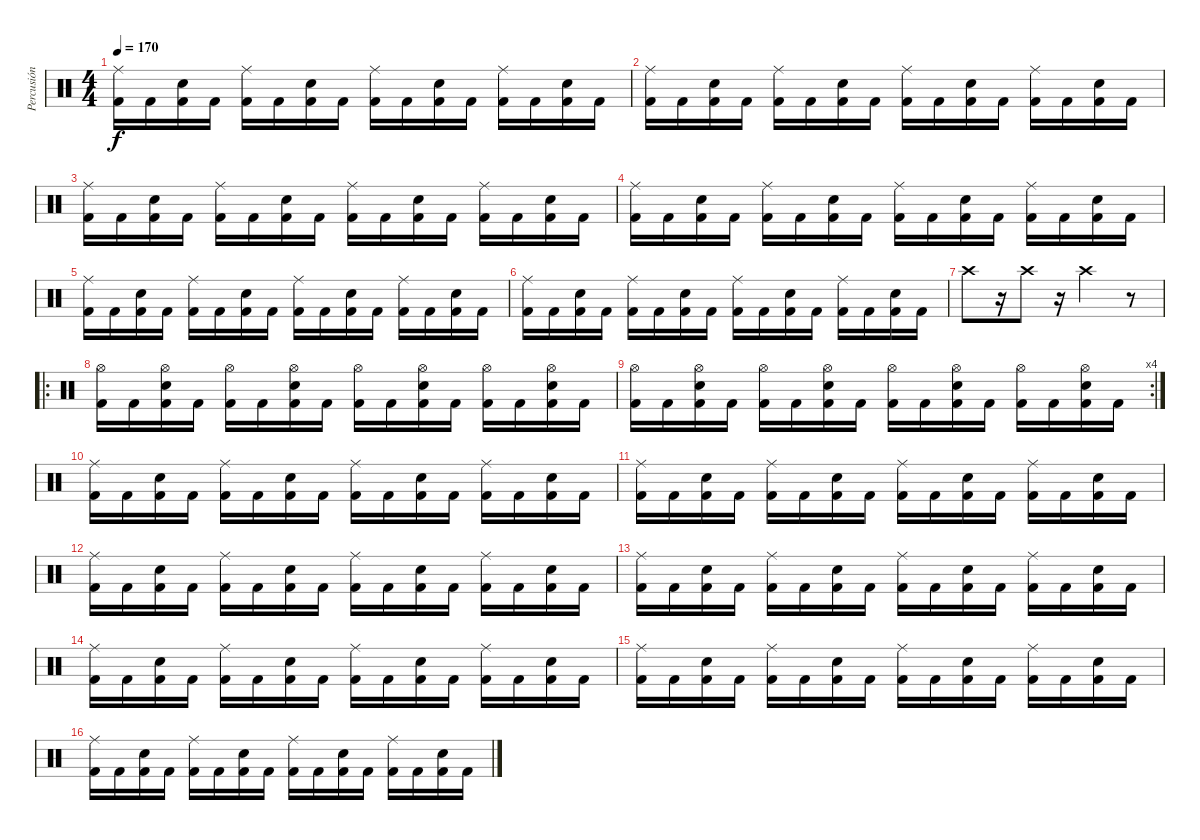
\track ("Percusión" "Percusión") {instrument percussion}
\staff {score}
\articulation defaults
\ts (4 4)
\tempo 170
\clef neutral
\ks c
("Kick (hit) 2" "Ride (middle)").16{dy f} "Kick (hit) 2".16 ("Kick (hit) 2" "Snare (hit) 2").16 "Kick (hit) 2".16 ("Kick (hit) 2" "Ride (middle)").16 "Kick (hit) 2".16 ("Kick (hit) 2" "Snare (hit) 2").16 "Kick (hit) 2".16 ("Kick (hit) 2" "Ride (middle)").16 "Kick (hit) 2".16 ("Kick (hit) 2" "Snare (hit) 2").16 "Kick (hit) 2".16 ("Kick (hit) 2" "Ride (middle)").16 "Kick (hit) 2".16 ("Kick (hit) 2" "Snare (hit) 2").16 "Kick (hit) 2".16 |
("Kick (hit) 2" "Ride (middle)").16 "Kick (hit) 2".16 ("Kick (hit) 2" "Snare (hit) 2").16 "Kick (hit) 2".16 ("Kick (hit) 2" "Ride (middle)").16 "Kick (hit) 2".16 ("Kick (hit) 2" "Snare (hit) 2").16 "Kick (hit) 2".16 ("Kick (hit) 2" "Ride (middle)").16 "Kick (hit) 2".16 ("Kick (hit) 2" "Snare (hit) 2").16 "Kick (hit) 2".16 ("Kick (hit) 2" "Ride (middle)").16 "Kick (hit) 2".16 ("Kick (hit) 2" "Snare (hit) 2").16 "Kick (hit) 2".16 |
("Kick (hit) 2" "Ride (middle)").16 "Kick (hit) 2".16 ("Kick (hit) 2" "Snare (hit) 2").16 "Kick (hit) 2".16 ("Kick (hit) 2" "Ride (middle)").16 "Kick (hit) 2".16 ("Kick (hit) 2" "Snare (hit) 2").16 "Kick (hit) 2".16 ("Kick (hit) 2" "Ride (middle)").16 "Kick (hit) 2".16 ("Kick (hit) 2" "Snare (hit) 2").16 "Kick (hit) 2".16 ("Kick (hit) 2" "Ride (middle)").16 "Kick (hit) 2".16 ("Kick (hit) 2" "Snare (hit) 2").16 "Kick (hit) 2".16 |
("Kick (hit) 2" "Ride (middle)").16 "Kick (hit) 2".16 ("Kick (hit) 2" "Snare (hit) 2").16 "Kick (hit) 2".16 ("Kick (hit) 2" "Ride (middle)").16 "Kick (hit) 2".16 ("Kick (hit) 2" "Snare (hit) 2").16 "Kick (hit) 2".16 ("Kick (hit) 2" "Ride (middle)").16 "Kick (hit) 2".16 ("Kick (hit) 2" "Snare (hit) 2").16 "Kick (hit) 2".16 ("Kick (hit) 2" "Ride (middle)").16 "Kick (hit) 2".16 ("Kick (hit) 2" "Snare (hit) 2").16 "Kick (hit) 2".16 |
("Kick (hit) 2" "Ride (middle)").16 "Kick (hit) 2".16 ("Kick (hit) 2" "Snare (hit) 2").16 "Kick (hit) 2".16 ("Kick (hit) 2" "Ride (middle)").16 "Kick (hit) 2".16 ("Kick (hit) 2" "Snare (hit) 2").16 "Kick (hit) 2".16 ("Kick (hit) 2" "Ride (middle)").16 "Kick (hit) 2".16 ("Kick (hit) 2" "Snare (hit) 2").16 "Kick (hit) 2".16 ("Kick (hit) 2" "Ride (middle)").16 "Kick (hit) 2".16 ("Kick (hit) 2" "Snare (hit) 2").16 "Kick (hit) 2".16 |
("Kick (hit) 2" "Ride (middle)").16 "Kick (hit) 2".16 ("Kick (hit) 2" "Snare (hit) 2").16 "Kick (hit) 2".16 ("Kick (hit) 2" "Ride (middle)").16 "Kick (hit) 2".16 ("Kick (hit) 2" "Snare (hit) 2").16 "Kick (hit) 2".16 ("Kick (hit) 2" "Ride (middle)").16 "Kick (hit) 2".16 ("Kick (hit) 2" "Snare (hit) 2").16 "Kick (hit) 2".16 ("Kick (hit) 2" "Ride (middle)").16 "Kick (hit) 2".16 ("Kick (hit) 2" "Snare (hit) 2").16 "Kick (hit) 2".16 |
"Crash high (hit)".8 r.16 "Crash high (hit)".8 r.16 "Crash high (hit)".2 r.8 |
\ro
("Kick (hit) 2" "Hi-Hat (open)").16 "Kick (hit) 2".16 ("Kick (hit) 2" "Hi-Hat (open)" "Snare (hit) 2").16 "Kick (hit) 2".16 ("Kick (hit) 2" "Hi-Hat (open)").16 "Kick (hit) 2".16 ("Kick (hit) 2" "Hi-Hat (open)" "Snare (hit) 2").16 "Kick (hit) 2".16 ("Kick (hit) 2" "Hi-Hat (open)").16 "Kick (hit) 2".16 ("Kick (hit) 2" "Hi-Hat (open)" "Snare (hit) 2").16 "Kick (hit) 2".16 ("Kick (hit) 2" "Hi-Hat (open)").16 "Kick (hit) 2".16 ("Kick (hit) 2" "Hi-Hat (open)" "Snare (hit) 2").16 "Kick (hit) 2".16 |
\rc 4
("Kick (hit) 2" "Hi-Hat (open)").16 "Kick (hit) 2".16 ("Kick (hit) 2" "Hi-Hat (open)" "Snare (hit) 2").16 "Kick (hit) 2".16 ("Kick (hit) 2" "Hi-Hat (open)").16 "Kick (hit) 2".16 ("Kick (hit) 2" "Hi-Hat (open)" "Snare (hit) 2").16 "Kick (hit) 2".16 ("Kick (hit) 2" "Hi-Hat (open)").16 "Kick (hit) 2".16 ("Kick (hit) 2" "Hi-Hat (open)" "Snare (hit) 2").16 "Kick (hit) 2".16 ("Kick (hit) 2" "Hi-Hat (open)").16 "Kick (hit) 2".16 ("Kick (hit) 2" "Hi-Hat (open)" "Snare (hit) 2").16 "Kick (hit) 2".16 |
("Kick (hit) 2" "Ride (middle)").16 "Kick (hit) 2".16 ("Kick (hit) 2" "Snare (hit) 2").16 "Kick (hit) 2".16 ("Kick (hit) 2" "Ride (middle)").16 "Kick (hit) 2".16 ("Kick (hit) 2" "Snare (hit) 2").16 "Kick (hit) 2".16 ("Kick (hit) 2" "Ride (middle)").16 "Kick (hit) 2".16 ("Kick (hit) 2" "Snare (hit) 2").16 "Kick (hit) 2".16 ("Kick (hit) 2" "Ride (middle)").16 "Kick (hit) 2".16 ("Kick (hit) 2" "Snare (hit) 2").16 "Kick (hit) 2".16 |
("Kick (hit) 2" "Ride (middle)").16 "Kick (hit) 2".16 ("Kick (hit) 2" "Snare (hit) 2").16 "Kick (hit) 2".16 ("Kick (hit) 2" "Ride (middle)").16 "Kick (hit) 2".16 ("Kick (hit) 2" "Snare (hit) 2").16 "Kick (hit) 2".16 ("Kick (hit) 2" "Ride (middle)").16 "Kick (hit) 2".16 ("Kick (hit) 2" "Snare (hit) 2").16 "Kick (hit) 2".16 ("Kick (hit) 2" "Ride (middle)").16 "Kick (hit) 2".16 ("Kick (hit) 2" "Snare (hit) 2").16 "Kick (hit) 2".16 |
("Kick (hit) 2" "Ride (middle)").16 "Kick (hit) 2".16 ("Kick (hit) 2" "Snare (hit) 2").16 "Kick (hit) 2".16 ("Kick (hit) 2" "Ride (middle)").16 "Kick (hit) 2".16 ("Kick (hit) 2" "Snare (hit) 2").16 "Kick (hit) 2".16 ("Kick (hit) 2" "Ride (middle)").16 "Kick (hit) 2".16 ("Kick (hit) 2" "Snare (hit) 2").16 "Kick (hit) 2".16 ("Kick (hit) 2" "Ride (middle)").16 "Kick (hit) 2".16 ("Kick (hit) 2" "Snare (hit) 2").16 "Kick (hit) 2".16 |
("Kick (hit) 2" "Ride (middle)").16 "Kick (hit) 2".16 ("Kick (hit) 2" "Snare (hit) 2").16 "Kick (hit) 2".16 ("Kick (hit) 2" "Ride (middle)").16 "Kick (hit) 2".16 ("Kick (hit) 2" "Snare (hit) 2").16 "Kick (hit) 2".16 ("Kick (hit) 2" "Ride (middle)").16 "Kick (hit) 2".16 ("Kick (hit) 2" "Snare (hit) 2").16 "Kick (hit) 2".16 ("Kick (hit) 2" "Ride (middle)").16 "Kick (hit) 2".16 ("Kick (hit) 2" "Snare (hit) 2").16 "Kick (hit) 2".16 |
("Kick (hit) 2" "Ride (middle)").16 "Kick (hit) 2".16 ("Kick (hit) 2" "Snare (hit) 2").16 "Kick (hit) 2".16 ("Kick (hit) 2" "Ride (middle)").16 "Kick (hit) 2".16 ("Kick (hit) 2" "Snare (hit) 2").16 "Kick (hit) 2".16 ("Kick (hit) 2" "Ride (middle)").16 "Kick (hit) 2".16 ("Kick (hit) 2" "Snare (hit) 2").16 "Kick (hit) 2".16 ("Kick (hit) 2" "Ride (middle)").16 "Kick (hit) 2".16 ("Kick (hit) 2" "Snare (hit) 2").16 "Kick (hit) 2".16 |
("Kick (hit) 2" "Ride (middle)").16 "Kick (hit) 2".16 ("Kick (hit) 2" "Snare (hit) 2").16 "Kick (hit) 2".16 ("Kick (hit) 2" "Ride (middle)").16 "Kick (hit) 2".16 ("Kick (hit) 2" "Snare (hit) 2").16 "Kick (hit) 2".16 ("Kick (hit) 2" "Ride (middle)").16 "Kick (hit) 2".16 ("Kick (hit) 2" "Snare (hit) 2").16 "Kick (hit) 2".16 ("Kick (hit) 2" "Ride (middle)").16 "Kick (hit) 2".16 ("Kick (hit) 2" "Snare (hit) 2").16 "Kick (hit) 2".16 |
("Kick (hit) 2" "Ride (middle)").16 "Kick (hit) 2".16 ("Kick (hit) 2" "Snare (hit) 2").16 "Kick (hit) 2".16 ("Kick (hit) 2" "Ride (middle)").16 "Kick (hit) 2".16 ("Kick (hit) 2" "Snare (hit) 2").16 "Kick (hit) 2".16 ("Kick (hit) 2" "Ride (middle)").16 "Kick (hit) 2".16 ("Kick (hit) 2" "Snare (hit) 2").16 "Kick (hit) 2".16 ("Kick (hit) 2" "Ride (middle)").16 "Kick (hit) 2".16 ("Kick (hit) 2" "Snare (hit) 2").16 "Kick (hit) 2".16
